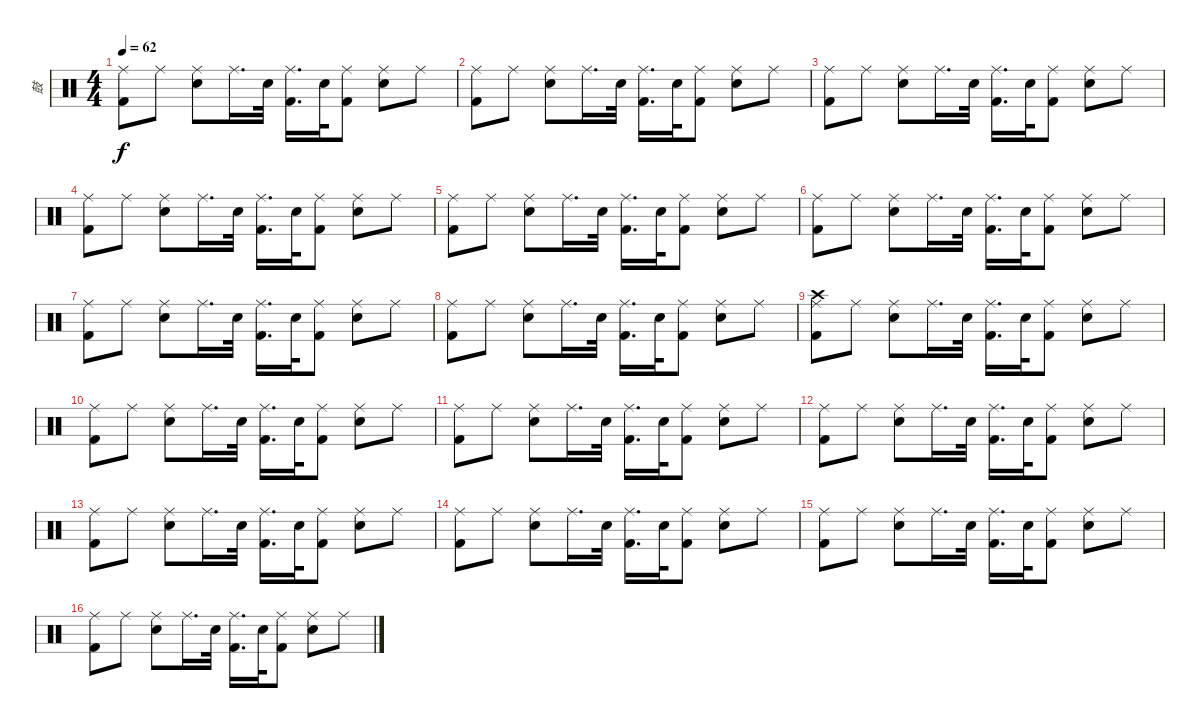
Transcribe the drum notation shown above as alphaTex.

\track ("鼓" "鼓") {instrument percussion}
\staff {score}
\articulation defaults
\ts (4 4)
\tempo 62
\clef neutral
\ks c
("Kick (hit) 2" "Ride (middle)").8{dy f} "Ride (middle)".8 ("Electric Snare (hit)" "Ride (middle)").8 "Ride (middle)".16{d} "Electric Snare (hit)".32 ("Kick (hit) 2" "Ride (middle)").16{d} "Electric Snare (hit)".32 ("Kick (hit) 2" "Ride (middle)").8 ("Electric Snare (hit)" "Ride (middle)").8 "Ride (middle)".8 |
("Kick (hit) 2" "Ride (middle)").8 "Ride (middle)".8 ("Electric Snare (hit)" "Ride (middle)").8 "Ride (middle)".16{d} "Electric Snare (hit)".32 ("Kick (hit) 2" "Ride (middle)").16{d} "Electric Snare (hit)".32 ("Kick (hit) 2" "Ride (middle)").8 ("Electric Snare (hit)" "Ride (middle)").8 "Ride (middle)".8 |
("Kick (hit) 2" "Ride (middle)").8 "Ride (middle)".8 ("Electric Snare (hit)" "Ride (middle)").8 "Ride (middle)".16{d} "Electric Snare (hit)".32 ("Kick (hit) 2" "Ride (middle)").16{d} "Electric Snare (hit)".32 ("Kick (hit) 2" "Ride (middle)").8 ("Electric Snare (hit)" "Ride (middle)").8 "Ride (middle)".8 |
("Kick (hit) 2" "Ride (middle)").8 "Ride (middle)".8 ("Electric Snare (hit)" "Ride (middle)").8 "Ride (middle)".16{d} "Electric Snare (hit)".32 ("Kick (hit) 2" "Ride (middle)").16{d} "Electric Snare (hit)".32 ("Kick (hit) 2" "Ride (middle)").8 ("Electric Snare (hit)" "Ride (middle)").8 "Ride (middle)".8 |
("Kick (hit) 2" "Ride (middle)").8 "Ride (middle)".8 ("Electric Snare (hit)" "Ride (middle)").8 "Ride (middle)".16{d} "Electric Snare (hit)".32 ("Kick (hit) 2" "Ride (middle)").16{d} "Electric Snare (hit)".32 ("Kick (hit) 2" "Ride (middle)").8 ("Electric Snare (hit)" "Ride (middle)").8 "Ride (middle)".8 |
("Kick (hit) 2" "Ride (middle)").8 "Ride (middle)".8 ("Electric Snare (hit)" "Ride (middle)").8 "Ride (middle)".16{d} "Electric Snare (hit)".32 ("Kick (hit) 2" "Ride (middle)").16{d} "Electric Snare (hit)".32 ("Kick (hit) 2" "Ride (middle)").8 ("Electric Snare (hit)" "Ride (middle)").8 "Ride (middle)".8 |
("Kick (hit) 2" "Ride (middle)").8 "Ride (middle)".8 ("Electric Snare (hit)" "Ride (middle)").8 "Ride (middle)".16{d} "Electric Snare (hit)".32 ("Kick (hit) 2" "Ride (middle)").16{d} "Electric Snare (hit)".32 ("Kick (hit) 2" "Ride (middle)").8 ("Electric Snare (hit)" "Ride (middle)").8 "Ride (middle)".8 |
("Kick (hit) 2" "Ride (middle)").8 "Ride (middle)".8 ("Electric Snare (hit)" "Ride (middle)").8 "Ride (middle)".16{d} "Electric Snare (hit)".32 ("Kick (hit) 2" "Ride (middle)").16{d} "Electric Snare (hit)".32 ("Kick (hit) 2" "Ride (middle)").8 ("Electric Snare (hit)" "Ride (middle)").8 "Ride (middle)".8 |
("Kick (hit) 2" "Crash high (hit)" "Ride (middle)").8 "Ride (middle)".8 ("Electric Snare (hit)" "Ride (middle)").8 "Ride (middle)".16{d} "Electric Snare (hit)".32 ("Kick (hit) 2" "Ride (middle)").16{d} "Electric Snare (hit)".32 ("Kick (hit) 2" "Ride (middle)").8 ("Electric Snare (hit)" "Ride (middle)").8 "Ride (middle)".8 |
("Kick (hit) 2" "Ride (middle)").8 "Ride (middle)".8 ("Electric Snare (hit)" "Ride (middle)").8 "Ride (middle)".16{d} "Electric Snare (hit)".32 ("Kick (hit) 2" "Ride (middle)").16{d} "Electric Snare (hit)".32 ("Kick (hit) 2" "Ride (middle)").8 ("Electric Snare (hit)" "Ride (middle)").8 "Ride (middle)".8 |
("Kick (hit) 2" "Ride (middle)").8 "Ride (middle)".8 ("Electric Snare (hit)" "Ride (middle)").8 "Ride (middle)".16{d} "Electric Snare (hit)".32 ("Kick (hit) 2" "Ride (middle)").16{d} "Electric Snare (hit)".32 ("Kick (hit) 2" "Ride (middle)").8 ("Electric Snare (hit)" "Ride (middle)").8 "Ride (middle)".8 |
("Kick (hit) 2" "Ride (middle)").8 "Ride (middle)".8 ("Electric Snare (hit)" "Ride (middle)").8 "Ride (middle)".16{d} "Electric Snare (hit)".32 ("Kick (hit) 2" "Ride (middle)").16{d} "Electric Snare (hit)".32 ("Kick (hit) 2" "Ride (middle)").8 ("Electric Snare (hit)" "Ride (middle)").8 "Ride (middle)".8 |
("Kick (hit) 2" "Ride (middle)").8 "Ride (middle)".8 ("Electric Snare (hit)" "Ride (middle)").8 "Ride (middle)".16{d} "Electric Snare (hit)".32 ("Kick (hit) 2" "Ride (middle)").16{d} "Electric Snare (hit)".32 ("Kick (hit) 2" "Ride (middle)").8 ("Electric Snare (hit)" "Ride (middle)").8 "Ride (middle)".8 |
("Kick (hit) 2" "Ride (middle)").8 "Ride (middle)".8 ("Electric Snare (hit)" "Ride (middle)").8 "Ride (middle)".16{d} "Electric Snare (hit)".32 ("Kick (hit) 2" "Ride (middle)").16{d} "Electric Snare (hit)".32 ("Kick (hit) 2" "Ride (middle)").8 ("Electric Snare (hit)" "Ride (middle)").8 "Ride (middle)".8 |
("Kick (hit) 2" "Ride (middle)").8 "Ride (middle)".8 ("Electric Snare (hit)" "Ride (middle)").8 "Ride (middle)".16{d} "Electric Snare (hit)".32 ("Kick (hit) 2" "Ride (middle)").16{d} "Electric Snare (hit)".32 ("Kick (hit) 2" "Ride (middle)").8 ("Electric Snare (hit)" "Ride (middle)").8 "Ride (middle)".8 |
("Kick (hit) 2" "Ride (middle)").8 "Ride (middle)".8 ("Electric Snare (hit)" "Ride (middle)").8 "Ride (middle)".16{d} "Electric Snare (hit)".32 ("Kick (hit) 2" "Ride (middle)").16{d} "Electric Snare (hit)".32 ("Kick (hit) 2" "Ride (middle)").8 ("Electric Snare (hit)" "Ride (middle)").8 "Ride (middle)".8
